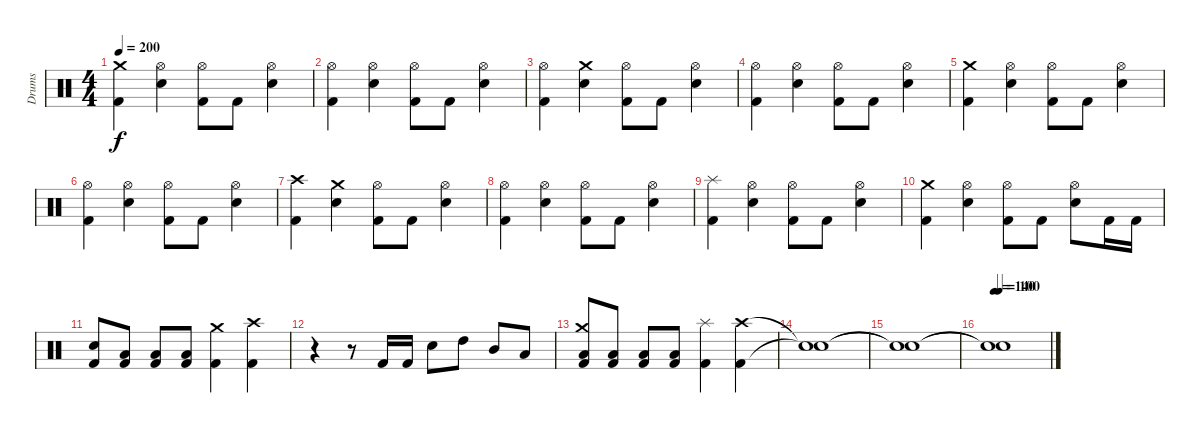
\track ("Drums" "Drums") {instrument percussion}
\staff {score}
\articulation defaults
\ts (4 4)
\tempo 200
\clef neutral
\ks c
("Kick (hit) 2" "Crash medium (hit)").4{dy f} ("Electric Snare (hit)" "Hi-Hat (open)").4 ("Kick (hit) 2" "Hi-Hat (open)").8 "Kick (hit) 2".8 ("Electric Snare (hit)" "Hi-Hat (open)").4 |
("Kick (hit) 2" "Hi-Hat (open)").4 ("Electric Snare (hit)" "Hi-Hat (open)").4 ("Kick (hit) 2" "Hi-Hat (open)").8 "Kick (hit) 2".8 ("Electric Snare (hit)" "Hi-Hat (open)").4 |
("Kick (hit) 2" "Hi-Hat (open)").4 ("Electric Snare (hit)" "Crash medium (hit)").4 ("Kick (hit) 2" "Hi-Hat (open)").8 "Kick (hit) 2".8 ("Electric Snare (hit)" "Hi-Hat (open)").4 |
("Kick (hit) 2" "Hi-Hat (open)").4 ("Electric Snare (hit)" "Hi-Hat (open)").4 ("Kick (hit) 2" "Hi-Hat (open)").8 "Kick (hit) 2".8 ("Electric Snare (hit)" "Hi-Hat (open)").4 |
("Kick (hit) 2" "Crash medium (hit)").4 ("Electric Snare (hit)" "Hi-Hat (open)").4 ("Kick (hit) 2" "Hi-Hat (open)").8 "Kick (hit) 2".8 ("Electric Snare (hit)" "Hi-Hat (open)").4 |
("Kick (hit) 2" "Hi-Hat (open)").4 ("Electric Snare (hit)" "Hi-Hat (open)").4 ("Kick (hit) 2" "Hi-Hat (open)").8 "Kick (hit) 2".8 ("Electric Snare (hit)" "Hi-Hat (open)").4 |
("Kick (hit) 2" "Crash high (hit)").4 ("Electric Snare (hit)" "Crash medium (hit)").4 ("Kick (hit) 2" "Hi-Hat (open)").8 "Kick (hit) 2".8 ("Electric Snare (hit)" "Hi-Hat (open)").4 |
("Kick (hit) 2" "Hi-Hat (open)").4 ("Electric Snare (hit)" "Hi-Hat (open)").4 ("Kick (hit) 2" "Hi-Hat (open)").8 "Kick (hit) 2".8 ("Electric Snare (hit)" "Hi-Hat (open)").4 |
("Kick (hit) 2" "Splash (hit)").4 ("Electric Snare (hit)" "Hi-Hat (open)").4 ("Kick (hit) 2" "Hi-Hat (open)").8 "Kick (hit) 2".8 ("Electric Snare (hit)" "Hi-Hat (open)").4 |
("Kick (hit) 2" "Crash medium (hit)").4 ("Electric Snare (hit)" "Hi-Hat (open)").4 ("Kick (hit) 2" "Hi-Hat (open)").8 "Kick (hit) 2".8 ("Electric Snare (hit)" "Hi-Hat (open)").8 "Kick (hit) 2".16 "Kick (hit) 2".16 |
("Kick (hit) 2" "Electric Snare (hit)").8 ("Kick (hit) 2" "Low Floor Tom (hit)").8 ("Kick (hit) 2" "Low Floor Tom (hit)").8 ("Kick (hit) 2" "Low Floor Tom (hit)").8 ("Kick (hit) 2" "Crash medium (hit)").4 ("Kick (hit) 2" "Crash high (hit)").4 |
r.4 r.8 "Kick (hit) 2".16 "Kick (hit) 2".16 "Electric Snare (hit)".8 "High Tom (hit)".8 "Mid Tom (hit)".8 "Low Tom (hit)".8 |
("Kick (hit) 2" "Low Floor Tom (hit)" "Crash medium (hit)").8 ("Kick (hit) 2" "Low Floor Tom (hit)").8 ("Kick (hit) 2" "Low Floor Tom (hit)").8 ("Kick (hit) 2" "Low Floor Tom (hit)").8 ("Kick (hit) 2" "Splash (hit)").4 ("Kick (hit) 2" "Crash high (hit)").4 |
("Snare (hit)"{t} "Snare (hit)"{t}).1 |
("Snare (hit)"{t} "Snare (hit)"{t}).1 |
\tempo 140
\tempo (100 0.08333333333333333)
("Snare (hit)"{t} "Snare (hit)"{t}).1
